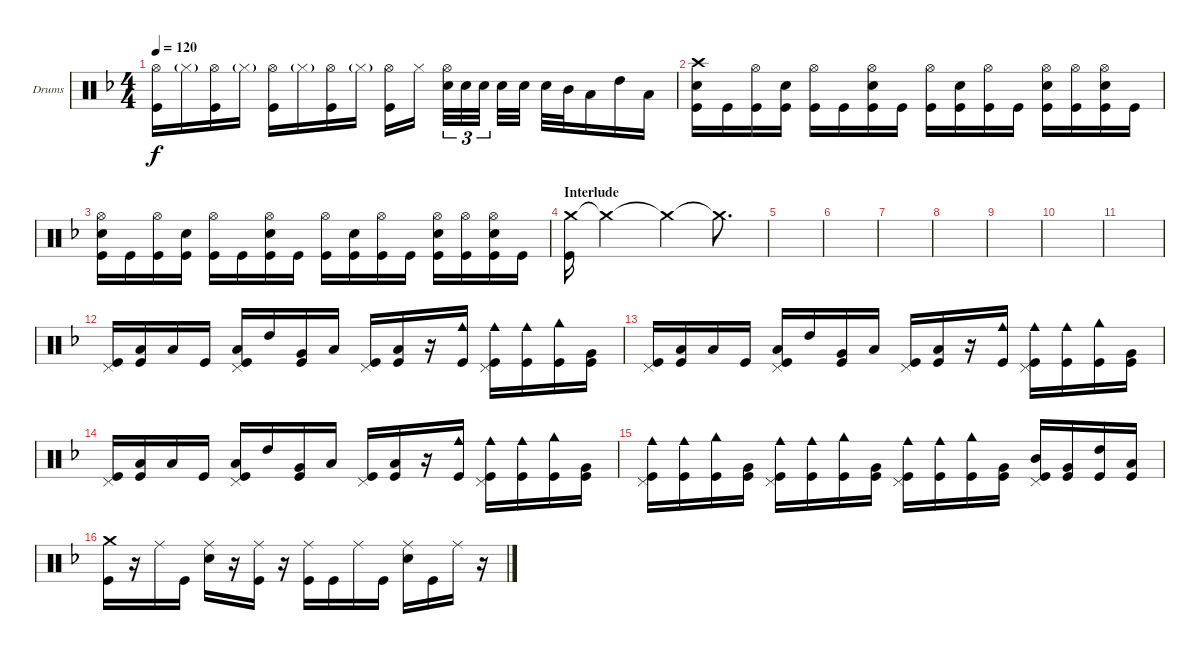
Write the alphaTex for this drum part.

\defaultSystemsLayout 4
\bracketExtendMode groupsimilarinstruments
\firstSystemTrackNameOrientation horizontal
\otherSystemsTrackNameOrientation horizontal
\track ("Drumkit" "Drums") {instrument percussion}
\staff {score}
\articulation defaults
\ts (4 4)
\tempo 120
\clef neutral
\scale
0.333333
\ks f
("Hi-Hat (open)" "Kick (hit)").16{dy f} "Hi-Hat (closed)"{g}.16 ("Kick (hit)" "Hi-Hat (open)").16 "Hi-Hat (closed)"{g}.16 ("Kick (hit)" "Hi-Hat (open)").16 "Hi-Hat (closed)"{g}.16 ("Kick (hit)" "Hi-Hat (open)").16 "Hi-Hat (closed)"{g}.16 ("Kick (hit)" "Hi-Hat (open)").16 "Hi-Hat (closed)".16 ("Hi-Hat (open)" "Snare (hit) 2").32{tu (3 2)} "Snare (hit) 2".32{tu (3 2)} "Snare (hit) 2".32{tu (3 2)} "Snare (hit) 2".32 "Snare (hit) 2".32 "Snare (hit) 2".32 "Mid Tom (hit)".32 "Low Tom (hit)".16 "High Tom (hit)".16 "Low Tom (hit)".16 |
\scale
0.333333 ("Crash high (hit)" "Kick (hit)" "Snare (hit) 2").16 "Kick (hit)".16 ("Hi-Hat (open)" "Kick (hit)").16 ("Kick (hit)" "Snare (hit) 2").16 ("Hi-Hat (open)" "Kick (hit)").16 "Kick (hit)".16 ("Hi-Hat (open)" "Kick (hit)" "Snare (hit) 2").16 "Kick (hit)".16 ("Kick (hit)" "Hi-Hat (open)").16 ("Kick (hit)" "Snare (hit) 2").16 ("Kick (hit)" "Hi-Hat (open)").16 "Kick (hit)".16 ("Kick (hit)" "Snare (hit) 2" "Hi-Hat (open)").16 ("Hi-Hat (open)" "Kick (hit)").16 ("Kick (hit)" "Snare (hit) 2" "Hi-Hat (open)").16 "Kick (hit)".16 |
\scale
0.333333 ("Kick (hit)" "Snare (hit) 2" "Hi-Hat (open)").16 "Kick (hit)".16 ("Hi-Hat (open)" "Kick (hit)").16 ("Kick (hit)" "Snare (hit) 2").16 ("Hi-Hat (open)" "Kick (hit)").16 "Kick (hit)".16 ("Hi-Hat (open)" "Kick (hit)" "Snare (hit) 2").16 "Kick (hit)".16 ("Kick (hit)" "Hi-Hat (open)").16 ("Kick (hit)" "Snare (hit) 2").16 ("Kick (hit)" "Hi-Hat (open)").16 "Kick (hit)".16 ("Kick (hit)" "Snare (hit) 2" "Hi-Hat (open)").16 ("Hi-Hat (open)" "Kick (hit)").16 ("Kick (hit)" "Snare (hit) 2" "Hi-Hat (open)").16 "Kick (hit)".16 |
\section ("" "Interlude")
\scale
0.333333 ("Crash medium (hit)" "Kick (hit)").16 "Crash medium (hit)"{t}.2 "Crash medium (hit)"{t}.4 "Crash medium (hit)"{t}.8{d} |
\scale
0.333333 |
\scale
0.333333 |
\scale
0.333333 |
\scale
0.333333 |
\scale
0.333333 |
\scale
0.333333 |
\scale
0.333333 |
\scale
0.333333 ("Pedal Hi-Hat (hit)" "Kick (hit)").16 ("Kick (hit)" "Low Tom (hit)").16 "Low Tom (hit)".16 "Kick (hit)".16 ("Kick (hit)" "Low Tom (hit)" "Pedal Hi-Hat (hit)").16 "High Tom (hit)".16 ("Kick (hit)" "Very Low Tom (hit)").16 "Low Tom (hit)".16 ("Pedal Hi-Hat (hit)" "Kick (hit)").16 ("Kick (hit)" "Low Tom (hit)").16 r.16 ("Kick (hit)" "Cowbell medium (hit)").16 ("Kick (hit)" "Pedal Hi-Hat (hit)" "Cowbell medium (hit)").16 ("Kick (hit)" "Cowbell medium (hit)").16 ("Kick (hit)" "Cowbell high (hit)").16 ("Kick (hit)" "Very Low Tom (hit)").16 |
\scale
0.333333 ("Pedal Hi-Hat (hit)" "Kick (hit)").16 ("Kick (hit)" "Low Tom (hit)").16 "Low Tom (hit)".16 "Kick (hit)".16 ("Kick (hit)" "Low Tom (hit)" "Pedal Hi-Hat (hit)").16 "High Tom (hit)".16 ("Kick (hit)" "Very Low Tom (hit)").16 "Low Tom (hit)".16 ("Pedal Hi-Hat (hit)" "Kick (hit)").16 ("Kick (hit)" "Low Tom (hit)").16 r.16 ("Kick (hit)" "Cowbell medium (hit)").16 ("Kick (hit)" "Pedal Hi-Hat (hit)" "Cowbell medium (hit)").16 ("Kick (hit)" "Cowbell medium (hit)").16 ("Kick (hit)" "Cowbell high (hit)").16 ("Kick (hit)" "Very Low Tom (hit)").16 |
\scale
0.333333 ("Pedal Hi-Hat (hit)" "Kick (hit)").16 ("Kick (hit)" "Low Tom (hit)").16 "Low Tom (hit)".16 "Kick (hit)".16 ("Kick (hit)" "Low Tom (hit)" "Pedal Hi-Hat (hit)").16 "High Tom (hit)".16 ("Kick (hit)" "Very Low Tom (hit)").16 "Low Tom (hit)".16 ("Pedal Hi-Hat (hit)" "Kick (hit)").16 ("Kick (hit)" "Low Tom (hit)").16 r.16 ("Kick (hit)" "Cowbell medium (hit)").16 ("Kick (hit)" "Pedal Hi-Hat (hit)" "Cowbell medium (hit)").16 ("Kick (hit)" "Cowbell medium (hit)").16 ("Kick (hit)" "Cowbell high (hit)").16 ("Kick (hit)" "Very Low Tom (hit)").16 |
\scale
0.333333 ("Kick (hit)" "Cowbell medium (hit)" "Pedal Hi-Hat (hit)").16 ("Kick (hit)" "Cowbell medium (hit)").16 ("Kick (hit)" "Cowbell high (hit)").16 ("Kick (hit)" "Very Low Tom (hit)").16 ("Kick (hit)" "Cowbell medium (hit)" "Pedal Hi-Hat (hit)").16 ("Kick (hit)" "Cowbell medium (hit)").16 ("Kick (hit)" "Cowbell high (hit)").16 ("Kick (hit)" "Very Low Tom (hit)").16 ("Kick (hit)" "Pedal Hi-Hat (hit)" "Cowbell medium (hit)").16 ("Kick (hit)" "Cowbell medium (hit)").16 ("Kick (hit)" "Cowbell high (hit)").16 ("Kick (hit)" "Very Low Tom (hit)").16 ("Kick (hit)" "Pedal Hi-Hat (hit)" "Mid Tom (hit)").16 ("Kick (hit)" "Very Low Tom (hit)").16 ("Kick (hit)" "High Tom (hit)").16 ("Kick (hit)" "Low Tom (hit)").16 |
\scale
0.333333 ("Crash medium (hit)" "Kick (hit)").16 r.16 "Ride (middle)".16 "Kick (hit)".16 ("Snare (hit) 2" "Ride (middle)").16 r.16 ("Kick (hit)" "Ride (middle)").16 r.16 ("Ride (middle)" "Kick (hit)").16 "Kick (hit)".16 "Ride (middle)".16 "Kick (hit)".16 ("Ride (middle)" "Snare (hit) 2").16 "Kick (hit)".16 "Ride (middle)".16 r.16
